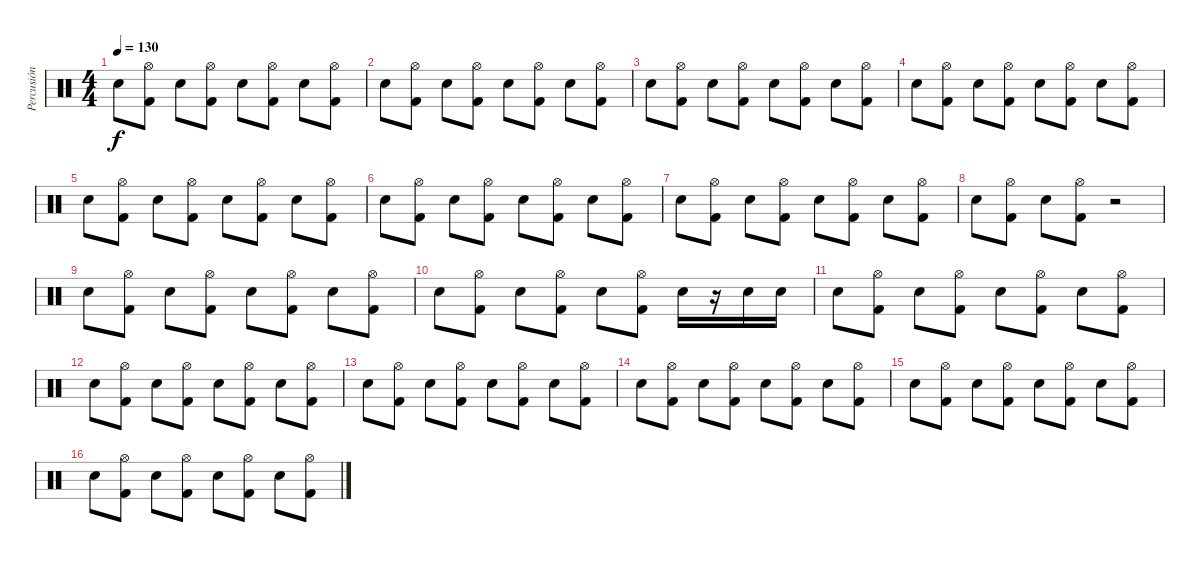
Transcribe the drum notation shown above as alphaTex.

\track ("Percusión" "Percusión") {instrument percussion}
\staff {score}
\articulation defaults
\ts (4 4)
\tempo 130
\clef neutral
\ks c "Snare (hit) 2".8{dy f}
("Hi-Hat (open)" "Kick (hit) 2").8 "Snare (hit) 2".8 ("Hi-Hat (open)" "Kick (hit) 2").8 "Snare (hit) 2".8 ("Hi-Hat (open)" "Kick (hit) 2").8 "Snare (hit) 2".8 ("Hi-Hat (open)" "Kick (hit) 2").8 |
"Snare (hit) 2".8 ("Hi-Hat (open)" "Kick (hit) 2").8 "Snare (hit) 2".8 ("Hi-Hat (open)" "Kick (hit) 2").8 "Snare (hit) 2".8 ("Hi-Hat (open)" "Kick (hit) 2").8 "Snare (hit) 2".8 ("Hi-Hat (open)" "Kick (hit) 2").8 |
"Snare (hit) 2".8 ("Hi-Hat (open)" "Kick (hit) 2").8 "Snare (hit) 2".8 ("Hi-Hat (open)" "Kick (hit) 2").8 "Snare (hit) 2".8 ("Hi-Hat (open)" "Kick (hit) 2").8 "Snare (hit) 2".8 ("Hi-Hat (open)" "Kick (hit) 2").8 |
"Snare (hit) 2".8 ("Hi-Hat (open)" "Kick (hit) 2").8 "Snare (hit) 2".8 ("Hi-Hat (open)" "Kick (hit) 2").8 "Snare (hit) 2".8 ("Hi-Hat (open)" "Kick (hit) 2").8 "Snare (hit) 2".8 ("Hi-Hat (open)" "Kick (hit) 2").8 |
"Snare (hit) 2".8 ("Hi-Hat (open)" "Kick (hit) 2").8 "Snare (hit) 2".8 ("Hi-Hat (open)" "Kick (hit) 2").8 "Snare (hit) 2".8 ("Hi-Hat (open)" "Kick (hit) 2").8 "Snare (hit) 2".8 ("Hi-Hat (open)" "Kick (hit) 2").8 |
"Snare (hit) 2".8 ("Hi-Hat (open)" "Kick (hit) 2").8 "Snare (hit) 2".8 ("Hi-Hat (open)" "Kick (hit) 2").8 "Snare (hit) 2".8 ("Hi-Hat (open)" "Kick (hit) 2").8 "Snare (hit) 2".8 ("Hi-Hat (open)" "Kick (hit) 2").8 |
"Snare (hit) 2".8 ("Hi-Hat (open)" "Kick (hit) 2").8 "Snare (hit) 2".8 ("Hi-Hat (open)" "Kick (hit) 2").8 "Snare (hit) 2".8 ("Hi-Hat (open)" "Kick (hit) 2").8 "Snare (hit) 2".8 ("Hi-Hat (open)" "Kick (hit) 2").8 |
"Snare (hit) 2".8 ("Hi-Hat (open)" "Kick (hit) 2").8 "Snare (hit) 2".8 ("Hi-Hat (open)" "Kick (hit) 2").8 r.2 |
"Snare (hit) 2".8 ("Hi-Hat (open)" "Kick (hit) 2").8 "Snare (hit) 2".8 ("Hi-Hat (open)" "Kick (hit) 2").8 "Snare (hit) 2".8 ("Hi-Hat (open)" "Kick (hit) 2").8 "Snare (hit) 2".8 ("Hi-Hat (open)" "Kick (hit) 2").8 |
"Snare (hit) 2".8 ("Hi-Hat (open)" "Kick (hit) 2").8 "Snare (hit) 2".8 ("Hi-Hat (open)" "Kick (hit) 2").8 "Snare (hit) 2".8 ("Hi-Hat (open)" "Kick (hit) 2").8 "Snare (hit) 2".16 r.16 "Snare (hit) 2".16 "Snare (hit) 2".16 |
"Snare (hit) 2".8 ("Hi-Hat (open)" "Kick (hit) 2").8 "Snare (hit) 2".8 ("Hi-Hat (open)" "Kick (hit) 2").8 "Snare (hit) 2".8 ("Hi-Hat (open)" "Kick (hit) 2").8 "Snare (hit) 2".8 ("Hi-Hat (open)" "Kick (hit) 2").8 |
"Snare (hit) 2".8 ("Hi-Hat (open)" "Kick (hit) 2").8 "Snare (hit) 2".8 ("Hi-Hat (open)" "Kick (hit) 2").8 "Snare (hit) 2".8 ("Hi-Hat (open)" "Kick (hit) 2").8 "Snare (hit) 2".8 ("Hi-Hat (open)" "Kick (hit) 2").8 |
"Snare (hit) 2".8 ("Hi-Hat (open)" "Kick (hit) 2").8 "Snare (hit) 2".8 ("Hi-Hat (open)" "Kick (hit) 2").8 "Snare (hit) 2".8 ("Hi-Hat (open)" "Kick (hit) 2").8 "Snare (hit) 2".8 ("Hi-Hat (open)" "Kick (hit) 2").8 |
"Snare (hit) 2".8 ("Hi-Hat (open)" "Kick (hit) 2").8 "Snare (hit) 2".8 ("Hi-Hat (open)" "Kick (hit) 2").8 "Snare (hit) 2".8 ("Hi-Hat (open)" "Kick (hit) 2").8 "Snare (hit) 2".8 ("Hi-Hat (open)" "Kick (hit) 2").8 |
"Snare (hit) 2".8 ("Hi-Hat (open)" "Kick (hit) 2").8 "Snare (hit) 2".8 ("Hi-Hat (open)" "Kick (hit) 2").8 "Snare (hit) 2".8 ("Hi-Hat (open)" "Kick (hit) 2").8 "Snare (hit) 2".8 ("Hi-Hat (open)" "Kick (hit) 2").8 |
"Snare (hit) 2".8 ("Hi-Hat (open)" "Kick (hit) 2").8 "Snare (hit) 2".8 ("Hi-Hat (open)" "Kick (hit) 2").8 "Snare (hit) 2".8 ("Hi-Hat (open)" "Kick (hit) 2").8 "Snare (hit) 2".8 ("Hi-Hat (open)" "Kick (hit) 2").8
